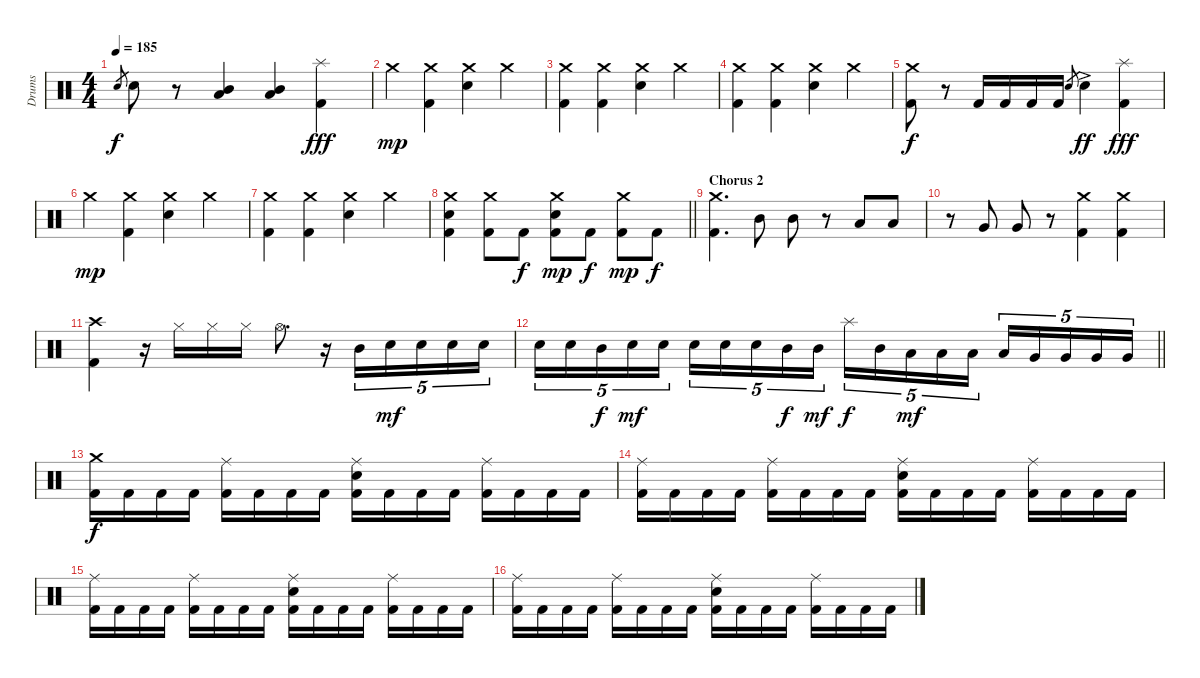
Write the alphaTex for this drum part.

\track ("Drums" "Drums") {instrument percussion}
\staff {score}
\articulation defaults
\ts (4 4)
\tempo 185
\clef neutral
\ks c "Electric Snare (hit)".8{gr dy f} "Electric Snare (hit)".8
r.8 ("Mid Tom (hit)" "Low Tom (hit)").4 ("Mid Tom (hit)" "Low Tom (hit)").4 ("Splash (hit)" "Kick (hit) 2").4{dy fff} |
"Crash medium (hit)".4{dy mp} ("Crash medium (hit)" "Kick (hit) 2").4 ("Crash medium (hit)" "Electric Snare (hit)").4 "Crash medium (hit)".4 |
("Crash medium (hit)" "Kick (hit) 2").4 ("Crash medium (hit)" "Kick (hit) 2").4 ("Crash medium (hit)" "Electric Snare (hit)").4 "Crash medium (hit)".4 |
("Crash medium (hit)" "Kick (hit) 2").4 ("Crash medium (hit)" "Kick (hit) 2").4 ("Crash medium (hit)" "Electric Snare (hit)").4 "Crash medium (hit)".4 |
("Crash medium (hit)" "Kick (hit) 2").8{dy f} r.8 "Kick (hit) 2".16 "Kick (hit) 2".16 "Kick (hit) 2".16 "Kick (hit) 2".16 "Electric Snare (hit)".8{gr} "Electric Snare (hit)"{ac}.4{dy ff} ("Splash (hit)" "Kick (hit) 2").4{dy fff} |
"Crash medium (hit)".4{dy mp} ("Crash medium (hit)" "Kick (hit) 2").4 ("Crash medium (hit)" "Electric Snare (hit)").4 "Crash medium (hit)".4 |
("Crash medium (hit)" "Kick (hit) 2").4 ("Crash medium (hit)" "Kick (hit) 2").4 ("Crash medium (hit)" "Electric Snare (hit)").4 "Crash medium (hit)".4 |
\barLineRight lightlight
("Crash medium (hit)" "Electric Snare (hit)" "Kick (hit) 2").4 ("Crash medium (hit)" "Kick (hit) 2").8 "Kick (hit) 2".8{dy f} ("Crash medium (hit)" "Electric Snare (hit)" "Kick (hit) 2").8{dy mp} "Kick (hit) 2".8{dy f} ("Crash medium (hit)" "Kick (hit) 2").8{dy mp} "Kick (hit) 2".8{dy f} |
\section ("" "Chorus 2")
("Crash medium (hit)" "Kick (hit) 2").4{d} "Mid Tom (hit)".8 "Mid Tom (hit)".8 r.8 "Low Tom (hit)".8 "Low Tom (hit)".8 |
r.8 "Very Low Tom (hit)".8 "Very Low Tom (hit)".8 r.8 ("Crash medium (hit)" "Kick (hit) 2").4 ("Crash medium (hit)" "Kick (hit) 2").4 |
("Crash high (hit)" "Kick (hit) 2").4 r.16 "Hi-Hat (closed)".16 "Hi-Hat (closed)".16 "Hi-Hat (closed)".16 "Hi-Hat (open)".8{d} r.16 "Mid Tom (hit)".16{tu (5 4)} "Electric Snare (hit)".16{tu (5 4) dy mf} "Electric Snare (hit)".16{tu (5 4)} "Electric Snare (hit)".16{tu (5 4)} "Electric Snare (hit)".16{tu (5 4)} |
\barLineRight lightlight "Electric Snare (hit)".16{tu (5 4)} "Electric Snare (hit)".16{tu (5 4)} "Mid Tom (hit)".16{tu (5 4) dy f} "Electric Snare (hit)".16{tu (5 4) dy mf} "Electric Snare (hit)".16{tu (5 4)} "Electric Snare (hit)".16{tu (5 4)} "Electric Snare (hit)".16{tu (5 4)} "Electric Snare (hit)".16{tu (5 4)} "Mid Tom (hit)".16{tu (5 4) dy f} "Mid Tom (hit)".16{tu (5 4) dy mf} "Splash (hit)".16{tu (5 4) dy f} "Mid Tom (hit)".16{tu (5 4)} "Low Tom (hit)".16{tu (5 4) dy mf} "Low Tom (hit)".16{tu (5 4)} "Low Tom (hit)".16{tu (5 4)} "Low Tom (hit)".16{tu (5 4)} "Very Low Tom (hit)".16{tu (5 4)} "Very Low Tom (hit)".16{tu (5 4)} "Very Low Tom (hit)".16{tu (5 4)} "Very Low Tom (hit)".16{tu (5 4)}
|
("Crash medium (hit)" "Kick (hit) 2").16{dy f} "Kick (hit) 2".16 "Kick (hit) 2".16 "Kick (hit) 2".16 ("Ride (middle)" "Kick (hit) 2").16 "Kick (hit) 2".16 "Kick (hit) 2".16 "Kick (hit) 2".16 ("Ride (middle)" "Electric Snare (hit)" "Kick (hit) 2").16 "Kick (hit) 2".16 "Kick (hit) 2".16 "Kick (hit) 2".16 ("Ride (middle)" "Kick (hit) 2").16 "Kick (hit) 2".16 "Kick (hit) 2".16 "Kick (hit) 2".16 |
("Ride (middle)" "Kick (hit) 2").16 "Kick (hit) 2".16 "Kick (hit) 2".16 "Kick (hit) 2".16 ("Ride (middle)" "Kick (hit) 2").16 "Kick (hit) 2".16 "Kick (hit) 2".16 "Kick (hit) 2".16 ("Ride (middle)" "Electric Snare (hit)" "Kick (hit) 2").16 "Kick (hit) 2".16 "Kick (hit) 2".16 "Kick (hit) 2".16 ("Ride (middle)" "Kick (hit) 2").16 "Kick (hit) 2".16 "Kick (hit) 2".16 "Kick (hit) 2".16 |
("Ride (middle)" "Kick (hit) 2").16 "Kick (hit) 2".16 "Kick (hit) 2".16 "Kick (hit) 2".16 ("Ride (middle)" "Kick (hit) 2").16 "Kick (hit) 2".16 "Kick (hit) 2".16 "Kick (hit) 2".16 ("Ride (middle)" "Electric Snare (hit)" "Kick (hit) 2").16 "Kick (hit) 2".16 "Kick (hit) 2".16 "Kick (hit) 2".16 ("Ride (middle)" "Kick (hit) 2").16 "Kick (hit) 2".16 "Kick (hit) 2".16 "Kick (hit) 2".16 |
("Ride (middle)" "Kick (hit) 2").16 "Kick (hit) 2".16 "Kick (hit) 2".16 "Kick (hit) 2".16 ("Ride (middle)" "Kick (hit) 2").16 "Kick (hit) 2".16 "Kick (hit) 2".16 "Kick (hit) 2".16 ("Ride (middle)" "Electric Snare (hit)" "Kick (hit) 2").16 "Kick (hit) 2".16 "Kick (hit) 2".16 "Kick (hit) 2".16 ("Ride (middle)" "Kick (hit) 2").16 "Kick (hit) 2".16 "Kick (hit) 2".16 "Kick (hit) 2".16
